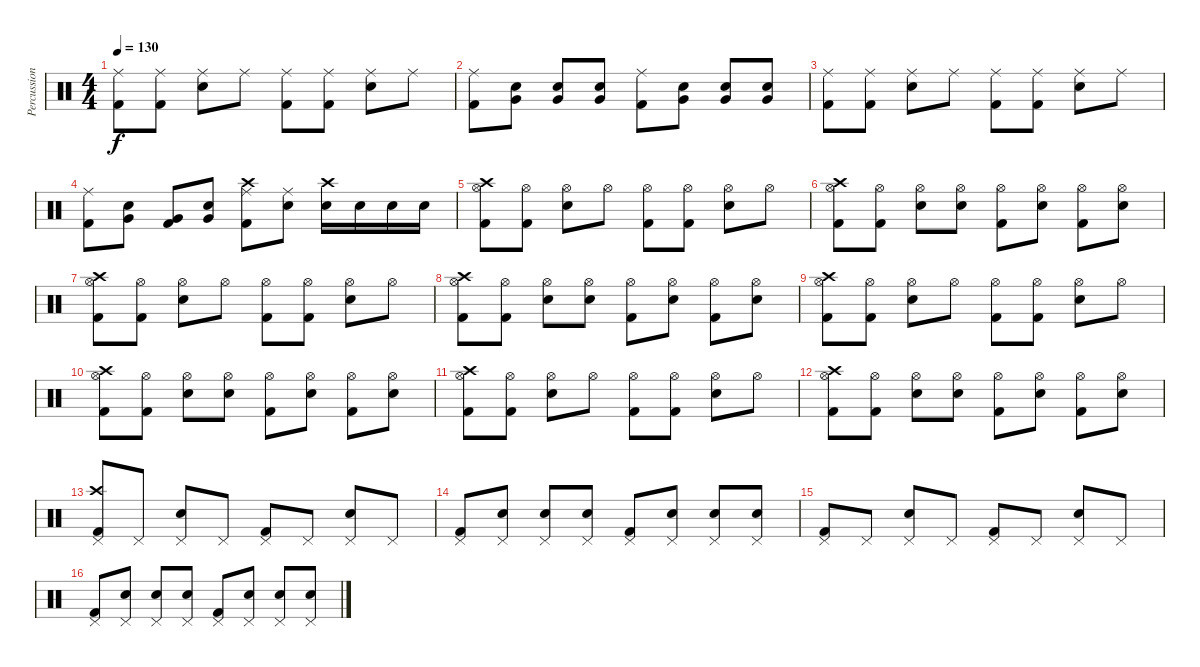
\track ("Percussion" "Percussion") {instrument percussion}
\staff {score}
\articulation defaults
\ts (4 4)
\tempo 130
\clef neutral
\ks c
("Ride (middle)" "Kick (hit) 2").8{dy f} ("Ride (middle)" "Kick (hit) 2").8 ("Ride (middle)" "Snare (hit) 2").8 "Ride (middle)".8 ("Ride (middle)" "Kick (hit) 2").8 ("Ride (middle)" "Kick (hit) 2").8 ("Ride (middle)" "Snare (hit) 2").8 "Ride (middle)".8 |
("Ride (middle)" "Kick (hit) 2").8 ("Very Low Tom (hit)" "Snare (hit) 2").8 ("Very Low Tom (hit)" "Snare (hit) 2").8 ("Very Low Tom (hit)" "Snare (hit) 2").8 ("Ride (middle)" "Kick (hit) 2").8 ("Very Low Tom (hit)" "Snare (hit) 2").8 ("Very Low Tom (hit)" "Snare (hit) 2").8 ("Very Low Tom (hit)" "Snare (hit) 2").8 |
("Ride (middle)" "Kick (hit) 2").8 ("Ride (middle)" "Kick (hit) 2").8 ("Ride (middle)" "Snare (hit) 2").8 "Ride (middle)".8 ("Ride (middle)" "Kick (hit) 2").8 ("Ride (middle)" "Kick (hit) 2").8 ("Ride (middle)" "Snare (hit) 2").8 "Ride (middle)".8 |
("Ride (middle)" "Kick (hit) 2").8 ("Very Low Tom (hit)" "Snare (hit) 2").8 ("Very Low Tom (hit)" "Kick (hit) 2").8 ("Very Low Tom (hit)" "Snare (hit) 2").8 ("Crash high (hit)" "Ride (middle)" "Kick (hit) 2").8 ("Ride (middle)" "Snare (hit) 2").8 ("Crash high (hit)" "Snare (hit) 2").16 "Snare (hit) 2".16 "Snare (hit) 2".16 "Snare (hit) 2".16 |
("Crash high (hit)" "Hi-Hat (open)" "Kick (hit) 2").8 ("Hi-Hat (open)" "Kick (hit) 2").8 ("Hi-Hat (open)" "Snare (hit) 2").8 "Hi-Hat (open)".8 ("Hi-Hat (open)" "Kick (hit) 2").8 ("Hi-Hat (open)" "Kick (hit) 2").8 ("Hi-Hat (open)" "Snare (hit) 2").8 "Hi-Hat (open)".8 |
("Crash high (hit)" "Hi-Hat (open)" "Kick (hit) 2").8 ("Hi-Hat (open)" "Kick (hit) 2").8 ("Hi-Hat (open)" "Snare (hit) 2").8 ("Hi-Hat (open)" "Snare (hit) 2").8 ("Hi-Hat (open)" "Kick (hit) 2").8 ("Hi-Hat (open)" "Snare (hit) 2").8 ("Hi-Hat (open)" "Kick (hit) 2").8 ("Hi-Hat (open)" "Snare (hit) 2").8 |
("Crash high (hit)" "Hi-Hat (open)" "Kick (hit) 2").8 ("Hi-Hat (open)" "Kick (hit) 2").8 ("Hi-Hat (open)" "Snare (hit) 2").8 "Hi-Hat (open)".8 ("Hi-Hat (open)" "Kick (hit) 2").8 ("Hi-Hat (open)" "Kick (hit) 2").8 ("Hi-Hat (open)" "Snare (hit) 2").8 "Hi-Hat (open)".8 |
("Crash high (hit)" "Hi-Hat (open)" "Kick (hit) 2").8 ("Hi-Hat (open)" "Kick (hit) 2").8 ("Hi-Hat (open)" "Snare (hit) 2").8 ("Hi-Hat (open)" "Snare (hit) 2").8 ("Hi-Hat (open)" "Kick (hit) 2").8 ("Hi-Hat (open)" "Snare (hit) 2").8 ("Hi-Hat (open)" "Kick (hit) 2").8 ("Hi-Hat (open)" "Snare (hit) 2").8 |
("Crash high (hit)" "Hi-Hat (open)" "Kick (hit) 2").8 ("Hi-Hat (open)" "Kick (hit) 2").8 ("Hi-Hat (open)" "Snare (hit) 2").8 "Hi-Hat (open)".8 ("Hi-Hat (open)" "Kick (hit) 2").8 ("Hi-Hat (open)" "Kick (hit) 2").8 ("Hi-Hat (open)" "Snare (hit) 2").8 "Hi-Hat (open)".8 |
("Crash high (hit)" "Hi-Hat (open)" "Kick (hit) 2").8 ("Hi-Hat (open)" "Kick (hit) 2").8 ("Hi-Hat (open)" "Snare (hit) 2").8 ("Hi-Hat (open)" "Snare (hit) 2").8 ("Hi-Hat (open)" "Kick (hit) 2").8 ("Hi-Hat (open)" "Snare (hit) 2").8 ("Hi-Hat (open)" "Kick (hit) 2").8 ("Hi-Hat (open)" "Snare (hit) 2").8 |
("Crash high (hit)" "Hi-Hat (open)" "Kick (hit) 2").8 ("Hi-Hat (open)" "Kick (hit) 2").8 ("Hi-Hat (open)" "Snare (hit) 2").8 "Hi-Hat (open)".8 ("Hi-Hat (open)" "Kick (hit) 2").8 ("Hi-Hat (open)" "Kick (hit) 2").8 ("Hi-Hat (open)" "Snare (hit) 2").8 "Hi-Hat (open)".8 |
("Crash high (hit)" "Hi-Hat (open)" "Kick (hit) 2").8 ("Hi-Hat (open)" "Kick (hit) 2").8 ("Hi-Hat (open)" "Snare (hit) 2").8 ("Hi-Hat (open)" "Snare (hit) 2").8 ("Hi-Hat (open)" "Kick (hit) 2").8 ("Hi-Hat (open)" "Snare (hit) 2").8 ("Hi-Hat (open)" "Kick (hit) 2").8 ("Hi-Hat (open)" "Snare (hit) 2").8 |
("Crash high (hit)" "Pedal Hi-Hat (hit)" "Kick (hit) 2").8 "Pedal Hi-Hat (hit)".8 ("Pedal Hi-Hat (hit)" "Snare (hit) 2").8 "Pedal Hi-Hat (hit)".8 ("Pedal Hi-Hat (hit)" "Kick (hit) 2").8 "Pedal Hi-Hat (hit)".8 ("Pedal Hi-Hat (hit)" "Snare (hit) 2").8 "Pedal Hi-Hat (hit)".8 |
("Pedal Hi-Hat (hit)" "Kick (hit) 2").8 ("Pedal Hi-Hat (hit)" "Snare (hit) 2").8 ("Pedal Hi-Hat (hit)" "Snare (hit) 2").8 ("Pedal Hi-Hat (hit)" "Snare (hit) 2").8 ("Pedal Hi-Hat (hit)" "Kick (hit) 2").8 ("Pedal Hi-Hat (hit)" "Snare (hit) 2").8 ("Pedal Hi-Hat (hit)" "Snare (hit) 2").8 ("Pedal Hi-Hat (hit)" "Snare (hit) 2").8 |
("Pedal Hi-Hat (hit)" "Kick (hit) 2").8 "Pedal Hi-Hat (hit)".8 ("Pedal Hi-Hat (hit)" "Snare (hit) 2").8 "Pedal Hi-Hat (hit)".8 ("Pedal Hi-Hat (hit)" "Kick (hit) 2").8 "Pedal Hi-Hat (hit)".8 ("Pedal Hi-Hat (hit)" "Snare (hit) 2").8 "Pedal Hi-Hat (hit)".8 |
("Pedal Hi-Hat (hit)" "Kick (hit) 2").8 ("Pedal Hi-Hat (hit)" "Snare (hit) 2").8 ("Pedal Hi-Hat (hit)" "Snare (hit) 2").8 ("Pedal Hi-Hat (hit)" "Snare (hit) 2").8 ("Pedal Hi-Hat (hit)" "Kick (hit) 2").8 ("Pedal Hi-Hat (hit)" "Snare (hit) 2").8 ("Pedal Hi-Hat (hit)" "Snare (hit) 2").8 ("Pedal Hi-Hat (hit)" "Snare (hit) 2").8
